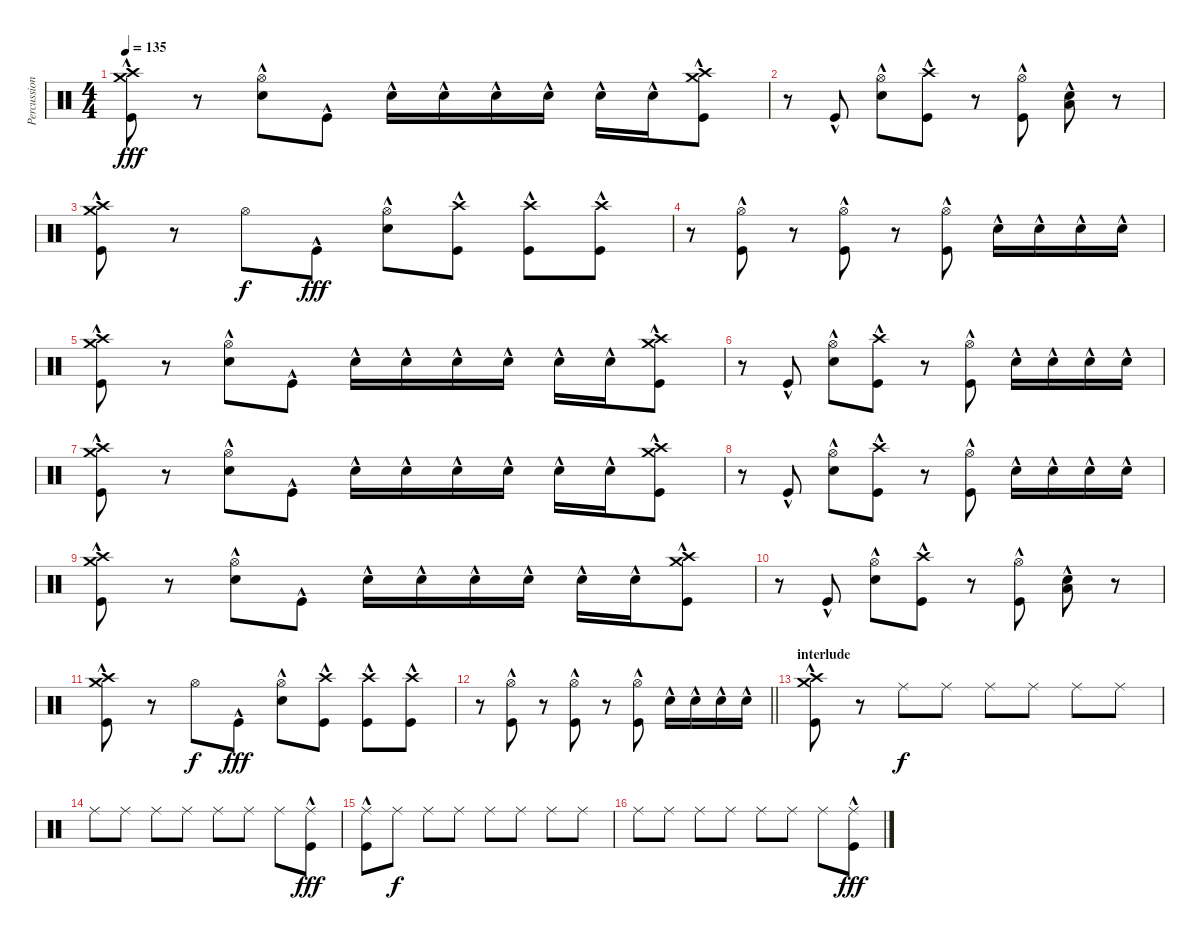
\track ("Percussion" "Percussion") {instrument percussion}
\staff {score}
\articulation defaults
\ts (4 4)
\tempo 135
\clef neutral
\ks c
("Crash medium (hit)" "Crash high (hit)" "Kick (hit)"{hac}).8{dy fff} r.8 ("Hi-Hat (open)" "Snare (hit) 2"{hac}).8 "Kick (hit)"{hac}.8 "Snare (hit) 2"{hac}.16 "Snare (hit) 2"{hac}.16 "Snare (hit) 2"{hac}.16 "Snare (hit) 2"{hac}.16 "Snare (hit) 2"{hac}.16 "Snare (hit) 2"{hac}.16 ("Crash medium (hit)" "Crash high (hit)" "Kick (hit)"{hac}).8 |
r.8 "Kick (hit)"{hac}.8 ("Hi-Hat (open)" "Snare (hit) 2"{hac}).8 ("Crash high (hit)" "Kick (hit)"{hac}).8 r.8 ("Hi-Hat (open)" "Kick (hit)"{hac}).8 ("Low Floor Tom (hit)"{hac} "Snare (hit) 2"{hac}).8 r.8 |
("Crash medium (hit)" "Crash high (hit)" "Kick (hit)"{hac}).8 r.8 "Hi-Hat (open)".8{dy f} "Kick (hit)"{hac}.8{dy fff} ("Hi-Hat (open)" "Snare (hit) 2"{hac}).8 ("Crash high (hit)" "Kick (hit)"{hac}).8 ("Crash high (hit)" "Kick (hit)"{hac}).8 ("Crash high (hit)" "Kick (hit)"{hac}).8 |
r.8 ("Hi-Hat (open)" "Kick (hit)"{hac}).8 r.8 ("Hi-Hat (open)" "Kick (hit)"{hac}).8 r.8 ("Hi-Hat (open)" "Kick (hit)"{hac}).8 "Snare (hit) 2"{hac}.16 "Snare (hit) 2"{hac}.16 "Snare (hit) 2"{hac}.16 "Snare (hit) 2"{hac}.16 |
("Crash medium (hit)" "Crash high (hit)" "Kick (hit)"{hac}).8 r.8 ("Hi-Hat (open)" "Snare (hit) 2"{hac}).8 "Kick (hit)"{hac}.8 "Snare (hit) 2"{hac}.16 "Snare (hit) 2"{hac}.16 "Snare (hit) 2"{hac}.16 "Snare (hit) 2"{hac}.16 "Snare (hit) 2"{hac}.16 "Snare (hit) 2"{hac}.16 ("Crash medium (hit)" "Crash high (hit)" "Kick (hit)"{hac}).8 |
r.8 "Kick (hit)"{hac}.8 ("Hi-Hat (open)" "Snare (hit) 2"{hac}).8 ("Crash high (hit)" "Kick (hit)"{hac}).8 r.8 ("Hi-Hat (open)" "Kick (hit)"{hac}).8 "Snare (hit) 2"{hac}.16 "Snare (hit) 2"{hac}.16 "Snare (hit) 2"{hac}.16 "Snare (hit) 2"{hac}.16 |
("Crash medium (hit)" "Crash high (hit)" "Kick (hit)"{hac}).8 r.8 ("Hi-Hat (open)" "Snare (hit) 2"{hac}).8 "Kick (hit)"{hac}.8 "Snare (hit) 2"{hac}.16 "Snare (hit) 2"{hac}.16 "Snare (hit) 2"{hac}.16 "Snare (hit) 2"{hac}.16 "Snare (hit) 2"{hac}.16 "Snare (hit) 2"{hac}.16 ("Crash medium (hit)" "Crash high (hit)" "Kick (hit)"{hac}).8 |
r.8 "Kick (hit)"{hac}.8 ("Hi-Hat (open)" "Snare (hit) 2"{hac}).8 ("Crash high (hit)" "Kick (hit)"{hac}).8 r.8 ("Hi-Hat (open)" "Kick (hit)"{hac}).8 "Snare (hit) 2"{hac}.16 "Snare (hit) 2"{hac}.16 "Snare (hit) 2"{hac}.16 "Snare (hit) 2"{hac}.16 |
("Crash medium (hit)" "Crash high (hit)" "Kick (hit)"{hac}).8 r.8 ("Hi-Hat (open)" "Snare (hit) 2"{hac}).8 "Kick (hit)"{hac}.8 "Snare (hit) 2"{hac}.16 "Snare (hit) 2"{hac}.16 "Snare (hit) 2"{hac}.16 "Snare (hit) 2"{hac}.16 "Snare (hit) 2"{hac}.16 "Snare (hit) 2"{hac}.16 ("Crash medium (hit)" "Crash high (hit)" "Kick (hit)"{hac}).8 |
r.8 "Kick (hit)"{hac}.8 ("Hi-Hat (open)" "Snare (hit) 2"{hac}).8 ("Crash high (hit)" "Kick (hit)"{hac}).8 r.8 ("Hi-Hat (open)" "Kick (hit)"{hac}).8 ("Low Floor Tom (hit)"{hac} "Snare (hit) 2"{hac}).8 r.8 |
("Crash medium (hit)" "Crash high (hit)" "Kick (hit)"{hac}).8 r.8 "Hi-Hat (open)".8{dy f} "Kick (hit)"{hac}.8{dy fff} ("Hi-Hat (open)" "Snare (hit) 2"{hac}).8 ("Crash high (hit)" "Kick (hit)"{hac}).8 ("Crash high (hit)" "Kick (hit)"{hac}).8 ("Crash high (hit)" "Kick (hit)"{hac}).8 |
\barLineRight lightlight
r.8 ("Hi-Hat (open)" "Kick (hit)"{hac}).8 r.8 ("Hi-Hat (open)" "Kick (hit)"{hac}).8 r.8 ("Hi-Hat (open)" "Kick (hit)"{hac}).8 "Snare (hit) 2"{hac}.16 "Snare (hit) 2"{hac}.16 "Snare (hit) 2"{hac}.16 "Snare (hit) 2"{hac}.16 |
\section ("" "interlude")
("Crash medium (hit)" "Crash high (hit)" "Kick (hit)"{hac}).8 r.8 "Ride (middle)".8{dy f} "Ride (middle)".8 "Ride (middle)".8 "Ride (middle)".8 "Ride (middle)".8 "Ride (middle)".8 |
"Ride (middle)".8 "Ride (middle)".8 "Ride (middle)".8 "Ride (middle)".8 "Ride (middle)".8 "Ride (middle)".8 "Ride (middle)".8 ("Ride (middle)" "Kick (hit)"{hac}).8{dy fff} |
("Ride (middle)" "Kick (hit)"{hac}).8 "Ride (middle)".8{dy f} "Ride (middle)".8 "Ride (middle)".8 "Ride (middle)".8 "Ride (middle)".8 "Ride (middle)".8 "Ride (middle)".8 |
"Ride (middle)".8 "Ride (middle)".8 "Ride (middle)".8 "Ride (middle)".8 "Ride (middle)".8 "Ride (middle)".8 "Ride (middle)".8 ("Ride (middle)" "Kick (hit)"{hac}).8{dy fff}
